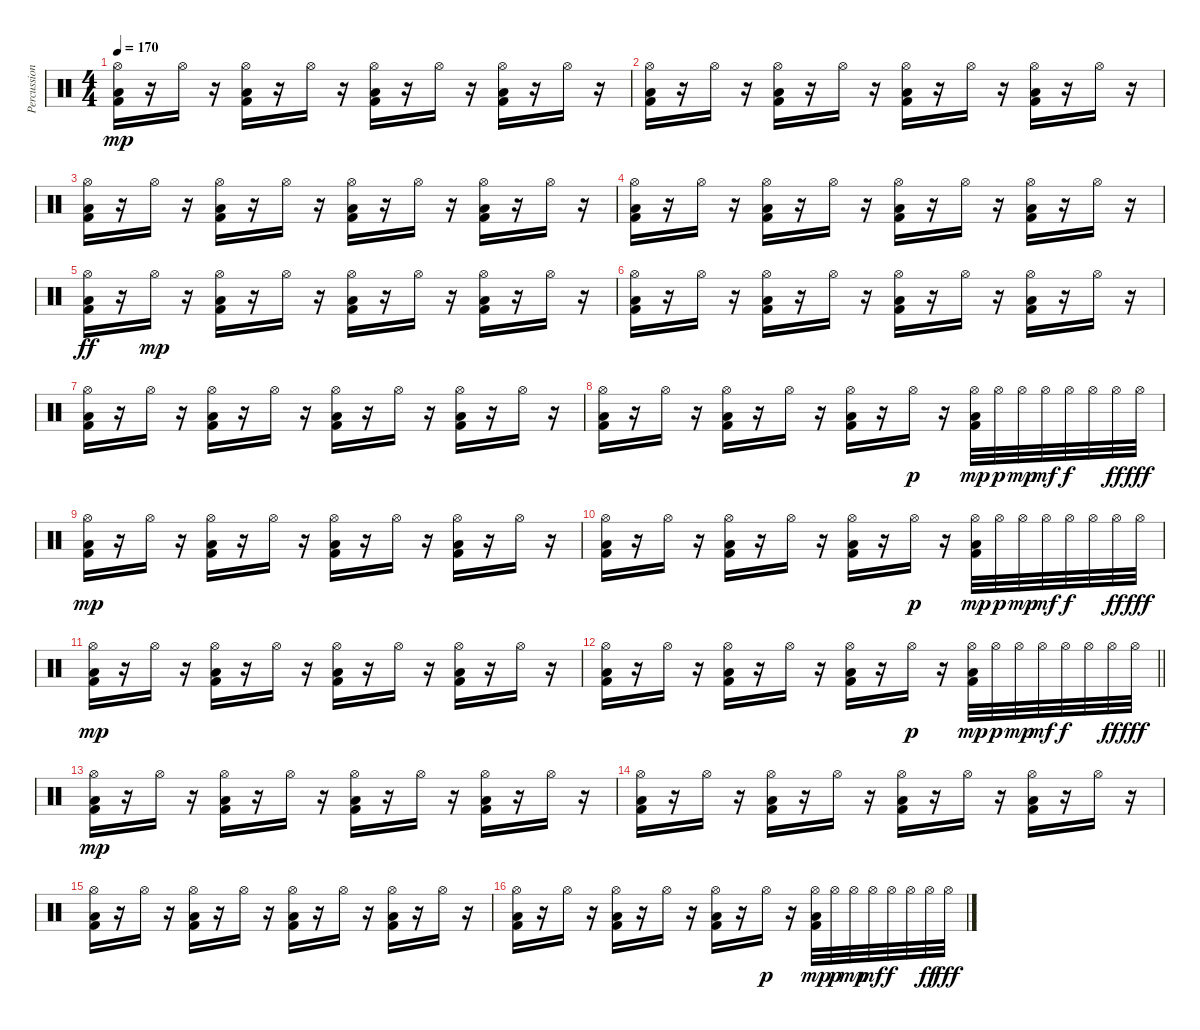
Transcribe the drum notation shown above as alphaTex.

\track ("Percussion" "Percussion") {instrument percussion}
\staff {score}
\articulation defaults
\ts (4 4)
\tempo 170
\clef neutral
\ks c
("Hi-Hat (open)" "Low Floor Tom (hit)" "Kick (hit) 2").16{dy mp} r.16 "Hi-Hat (open)".16 r.16 ("Hi-Hat (open)" "Low Floor Tom (hit)" "Kick (hit) 2").16 r.16 "Hi-Hat (open)".16 r.16 ("Hi-Hat (open)" "Low Floor Tom (hit)" "Kick (hit) 2").16 r.16 "Hi-Hat (open)".16 r.16 ("Hi-Hat (open)" "Low Floor Tom (hit)" "Kick (hit) 2").16 r.16 "Hi-Hat (open)".16 r.16 |
("Hi-Hat (open)" "Low Floor Tom (hit)" "Kick (hit) 2").16 r.16 "Hi-Hat (open)".16 r.16 ("Hi-Hat (open)" "Low Floor Tom (hit)" "Kick (hit) 2").16 r.16 "Hi-Hat (open)".16 r.16 ("Hi-Hat (open)" "Low Floor Tom (hit)" "Kick (hit) 2").16 r.16 "Hi-Hat (open)".16 r.16 ("Hi-Hat (open)" "Low Floor Tom (hit)" "Kick (hit) 2").16 r.16 "Hi-Hat (open)".16 r.16 |
("Hi-Hat (open)" "Low Floor Tom (hit)" "Kick (hit) 2").16 r.16 "Hi-Hat (open)".16 r.16 ("Hi-Hat (open)" "Low Floor Tom (hit)" "Kick (hit) 2").16 r.16 "Hi-Hat (open)".16 r.16 ("Hi-Hat (open)" "Low Floor Tom (hit)" "Kick (hit) 2").16 r.16 "Hi-Hat (open)".16 r.16 ("Hi-Hat (open)" "Low Floor Tom (hit)" "Kick (hit) 2").16 r.16 "Hi-Hat (open)".16 r.16 |
("Hi-Hat (open)" "Low Floor Tom (hit)" "Kick (hit) 2").16 r.16 "Hi-Hat (open)".16 r.16 ("Hi-Hat (open)" "Low Floor Tom (hit)" "Kick (hit) 2").16 r.16 "Hi-Hat (open)".16 r.16 ("Hi-Hat (open)" "Low Floor Tom (hit)" "Kick (hit) 2").16 r.16 "Hi-Hat (open)".16 r.16 ("Hi-Hat (open)" "Low Floor Tom (hit)" "Kick (hit) 2").16 r.16 "Hi-Hat (open)".16 r.16 |
("Hi-Hat (open)" "Low Floor Tom (hit)" "Kick (hit) 2").16{dy ff} r.16 "Hi-Hat (open)".16{dy mp} r.16 ("Hi-Hat (open)" "Low Floor Tom (hit)" "Kick (hit) 2").16 r.16 "Hi-Hat (open)".16 r.16 ("Hi-Hat (open)" "Low Floor Tom (hit)" "Kick (hit) 2").16 r.16 "Hi-Hat (open)".16 r.16 ("Hi-Hat (open)" "Low Floor Tom (hit)" "Kick (hit) 2").16 r.16 "Hi-Hat (open)".16 r.16 |
("Hi-Hat (open)" "Low Floor Tom (hit)" "Kick (hit) 2").16 r.16 "Hi-Hat (open)".16 r.16 ("Hi-Hat (open)" "Low Floor Tom (hit)" "Kick (hit) 2").16 r.16 "Hi-Hat (open)".16 r.16 ("Hi-Hat (open)" "Low Floor Tom (hit)" "Kick (hit) 2").16 r.16 "Hi-Hat (open)".16 r.16 ("Hi-Hat (open)" "Low Floor Tom (hit)" "Kick (hit) 2").16 r.16 "Hi-Hat (open)".16 r.16 |
("Hi-Hat (open)" "Low Floor Tom (hit)" "Kick (hit) 2").16 r.16 "Hi-Hat (open)".16 r.16 ("Hi-Hat (open)" "Low Floor Tom (hit)" "Kick (hit) 2").16 r.16 "Hi-Hat (open)".16 r.16 ("Hi-Hat (open)" "Low Floor Tom (hit)" "Kick (hit) 2").16 r.16 "Hi-Hat (open)".16 r.16 ("Hi-Hat (open)" "Low Floor Tom (hit)" "Kick (hit) 2").16 r.16 "Hi-Hat (open)".16 r.16 |
("Hi-Hat (open)" "Low Floor Tom (hit)" "Kick (hit) 2").16 r.16 "Hi-Hat (open)".16 r.16 ("Hi-Hat (open)" "Low Floor Tom (hit)" "Kick (hit) 2").16 r.16 "Hi-Hat (open)".16 r.16 ("Hi-Hat (open)" "Low Floor Tom (hit)" "Kick (hit) 2").16 r.16 "Hi-Hat (open)".16{dy p} r.16 ("Hi-Hat (open)" "Low Floor Tom (hit)" "Kick (hit) 2").32{dy mp} "Hi-Hat (open)".32{dy p} "Hi-Hat (open)".32{dy mp} "Hi-Hat (open)".32{dy mf} "Hi-Hat (open)".32{dy f} "Hi-Hat (open)".32 "Hi-Hat (open)".32{dy ff} "Hi-Hat (open)".32{dy fff} |
("Hi-Hat (open)" "Low Floor Tom (hit)" "Kick (hit) 2").16{dy mp} r.16 "Hi-Hat (open)".16 r.16 ("Hi-Hat (open)" "Low Floor Tom (hit)" "Kick (hit) 2").16 r.16 "Hi-Hat (open)".16 r.16 ("Hi-Hat (open)" "Low Floor Tom (hit)" "Kick (hit) 2").16 r.16 "Hi-Hat (open)".16 r.16 ("Hi-Hat (open)" "Low Floor Tom (hit)" "Kick (hit) 2").16 r.16 "Hi-Hat (open)".16 r.16 |
("Hi-Hat (open)" "Low Floor Tom (hit)" "Kick (hit) 2").16 r.16 "Hi-Hat (open)".16 r.16 ("Hi-Hat (open)" "Low Floor Tom (hit)" "Kick (hit) 2").16 r.16 "Hi-Hat (open)".16 r.16 ("Hi-Hat (open)" "Low Floor Tom (hit)" "Kick (hit) 2").16 r.16 "Hi-Hat (open)".16{dy p} r.16 ("Hi-Hat (open)" "Low Floor Tom (hit)" "Kick (hit) 2").32{dy mp} "Hi-Hat (open)".32{dy p} "Hi-Hat (open)".32{dy mp} "Hi-Hat (open)".32{dy mf} "Hi-Hat (open)".32{dy f} "Hi-Hat (open)".32 "Hi-Hat (open)".32{dy ff} "Hi-Hat (open)".32{dy fff} |
("Hi-Hat (open)" "Low Floor Tom (hit)" "Kick (hit) 2").16{dy mp} r.16 "Hi-Hat (open)".16 r.16 ("Hi-Hat (open)" "Low Floor Tom (hit)" "Kick (hit) 2").16 r.16 "Hi-Hat (open)".16 r.16 ("Hi-Hat (open)" "Low Floor Tom (hit)" "Kick (hit) 2").16 r.16 "Hi-Hat (open)".16 r.16 ("Hi-Hat (open)" "Low Floor Tom (hit)" "Kick (hit) 2").16 r.16 "Hi-Hat (open)".16 r.16 |
\barLineRight lightlight
("Hi-Hat (open)" "Low Floor Tom (hit)" "Kick (hit) 2").16 r.16 "Hi-Hat (open)".16 r.16 ("Hi-Hat (open)" "Low Floor Tom (hit)" "Kick (hit) 2").16 r.16 "Hi-Hat (open)".16 r.16 ("Hi-Hat (open)" "Low Floor Tom (hit)" "Kick (hit) 2").16 r.16 "Hi-Hat (open)".16{dy p} r.16 ("Hi-Hat (open)" "Low Floor Tom (hit)" "Kick (hit) 2").32{dy mp} "Hi-Hat (open)".32{dy p} "Hi-Hat (open)".32{dy mp} "Hi-Hat (open)".32{dy mf} "Hi-Hat (open)".32{dy f} "Hi-Hat (open)".32 "Hi-Hat (open)".32{dy ff} "Hi-Hat (open)".32{dy fff} |
("Hi-Hat (open)" "Low Floor Tom (hit)" "Kick (hit) 2").16{dy mp} r.16 "Hi-Hat (open)".16 r.16 ("Hi-Hat (open)" "Low Floor Tom (hit)" "Kick (hit) 2").16 r.16 "Hi-Hat (open)".16 r.16 ("Hi-Hat (open)" "Low Floor Tom (hit)" "Kick (hit) 2").16 r.16 "Hi-Hat (open)".16 r.16 ("Hi-Hat (open)" "Low Floor Tom (hit)" "Kick (hit) 2").16 r.16 "Hi-Hat (open)".16 r.16 |
("Hi-Hat (open)" "Low Floor Tom (hit)" "Kick (hit) 2").16 r.16 "Hi-Hat (open)".16 r.16 ("Hi-Hat (open)" "Low Floor Tom (hit)" "Kick (hit) 2").16 r.16 "Hi-Hat (open)".16 r.16 ("Hi-Hat (open)" "Low Floor Tom (hit)" "Kick (hit) 2").16 r.16 "Hi-Hat (open)".16 r.16 ("Hi-Hat (open)" "Low Floor Tom (hit)" "Kick (hit) 2").16 r.16 "Hi-Hat (open)".16 r.16 |
("Hi-Hat (open)" "Low Floor Tom (hit)" "Kick (hit) 2").16 r.16 "Hi-Hat (open)".16 r.16 ("Hi-Hat (open)" "Low Floor Tom (hit)" "Kick (hit) 2").16 r.16 "Hi-Hat (open)".16 r.16 ("Hi-Hat (open)" "Low Floor Tom (hit)" "Kick (hit) 2").16 r.16 "Hi-Hat (open)".16 r.16 ("Hi-Hat (open)" "Low Floor Tom (hit)" "Kick (hit) 2").16 r.16 "Hi-Hat (open)".16 r.16 |
("Hi-Hat (open)" "Low Floor Tom (hit)" "Kick (hit) 2").16 r.16 "Hi-Hat (open)".16 r.16 ("Hi-Hat (open)" "Low Floor Tom (hit)" "Kick (hit) 2").16 r.16 "Hi-Hat (open)".16 r.16 ("Hi-Hat (open)" "Low Floor Tom (hit)" "Kick (hit) 2").16 r.16 "Hi-Hat (open)".16{dy p} r.16 ("Hi-Hat (open)" "Low Floor Tom (hit)" "Kick (hit) 2").32{dy mp} "Hi-Hat (open)".32{dy p} "Hi-Hat (open)".32{dy mp} "Hi-Hat (open)".32{dy mf} "Hi-Hat (open)".32{dy f} "Hi-Hat (open)".32 "Hi-Hat (open)".32{dy ff} "Hi-Hat (open)".32{dy fff}
